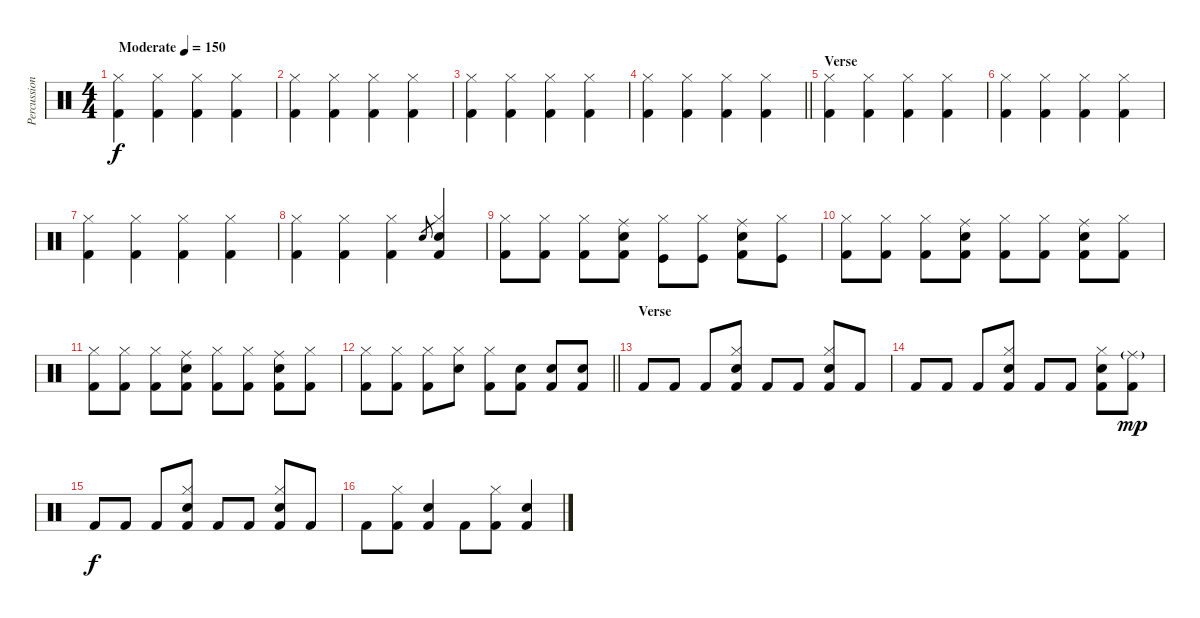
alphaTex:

\track ("Percussion" "Percussion") {instrument percussion}
\staff {score}
\articulation defaults
\ts (4 4)
\tempo (150 "Moderate")
\clef neutral
\ks c
("Kick (hit) 2" "Hi-Hat (closed)").4{dy f} ("Kick (hit) 2" "Hi-Hat (closed)").4 ("Kick (hit) 2" "Hi-Hat (closed)").4 ("Kick (hit) 2" "Hi-Hat (closed)").4 |
("Kick (hit) 2" "Hi-Hat (closed)").4 ("Kick (hit) 2" "Hi-Hat (closed)").4 ("Kick (hit) 2" "Hi-Hat (closed)").4 ("Kick (hit) 2" "Hi-Hat (closed)").4 |
("Kick (hit) 2" "Hi-Hat (closed)").4 ("Kick (hit) 2" "Hi-Hat (closed)").4 ("Kick (hit) 2" "Hi-Hat (closed)").4 ("Kick (hit) 2" "Hi-Hat (closed)").4 |
\barLineRight lightlight
("Kick (hit) 2" "Hi-Hat (closed)").4 ("Kick (hit) 2" "Hi-Hat (closed)").4 ("Kick (hit) 2" "Hi-Hat (closed)").4 ("Kick (hit) 2" "Hi-Hat (closed)").4 |
\section ("" "Verse")
("Kick (hit) 2" "Hi-Hat (closed)").4 ("Kick (hit) 2" "Hi-Hat (closed)").4 ("Kick (hit) 2" "Hi-Hat (closed)").4 ("Kick (hit) 2" "Hi-Hat (closed)").4 |
("Kick (hit) 2" "Hi-Hat (closed)").4 ("Kick (hit) 2" "Hi-Hat (closed)").4 ("Kick (hit) 2" "Hi-Hat (closed)").4 ("Kick (hit) 2" "Hi-Hat (closed)").4 |
("Kick (hit) 2" "Hi-Hat (closed)").4 ("Kick (hit) 2" "Hi-Hat (closed)").4 ("Kick (hit) 2" "Hi-Hat (closed)").4 ("Kick (hit) 2" "Hi-Hat (closed)").4 |
("Kick (hit) 2" "Hi-Hat (closed)").4 ("Kick (hit) 2" "Hi-Hat (closed)").4 ("Kick (hit) 2" "Hi-Hat (closed)").4 "Snare (hit) 2".8{gr} ("Kick (hit) 2" "Hi-Hat (closed)" "Snare (hit) 2").4 |
("Kick (hit) 2" "Hi-Hat (closed)").8 ("Kick (hit) 2" "Hi-Hat (closed)").8 ("Kick (hit) 2" "Hi-Hat (closed)").8 ("Kick (hit) 2" "Ride (middle)" "Snare (hit) 2").8 ("Hi-Hat (closed)" "Kick (hit)").8 ("Hi-Hat (closed)" "Kick (hit)").8 ("Kick (hit) 2" "Ride (middle)" "Snare (hit) 2").8 ("Hi-Hat (closed)" "Kick (hit)").8 |
("Kick (hit) 2" "Hi-Hat (closed)").8 ("Kick (hit) 2" "Hi-Hat (closed)").8 ("Kick (hit) 2" "Hi-Hat (closed)").8 ("Kick (hit) 2" "Snare (hit) 2" "Ride (middle)").8 ("Kick (hit) 2" "Hi-Hat (closed)").8 ("Kick (hit) 2" "Hi-Hat (closed)").8 ("Kick (hit) 2" "Snare (hit) 2" "Ride (middle)").8 ("Kick (hit) 2" "Hi-Hat (closed)").8 |
("Kick (hit) 2" "Hi-Hat (closed)").8 ("Kick (hit) 2" "Hi-Hat (closed)").8 ("Kick (hit) 2" "Hi-Hat (closed)").8 ("Kick (hit) 2" "Snare (hit) 2" "Ride (middle)").8 ("Kick (hit) 2" "Hi-Hat (closed)").8 ("Kick (hit) 2" "Hi-Hat (closed)").8 ("Kick (hit) 2" "Snare (hit) 2" "Ride (middle)").8 ("Kick (hit) 2" "Hi-Hat (closed)").8 |
\barLineRight lightlight
("Kick (hit) 2" "Hi-Hat (closed)").8 ("Kick (hit) 2" "Hi-Hat (closed)").8 ("Kick (hit) 2" "Hi-Hat (closed)").8 ("Hi-Hat (closed)" "Snare (hit) 2").8 ("Kick (hit) 2" "Hi-Hat (closed)").8 ("Kick (hit) 2" "Snare (hit) 2").8 ("Kick (hit) 2" "Snare (hit) 2").8 ("Kick (hit) 2" "Snare (hit) 2").8 |
\section ("" "Verse")
"Kick (hit) 2".8 "Kick (hit) 2".8 "Kick (hit) 2".8 ("Kick (hit) 2" "Snare (hit) 2" "Hi-Hat (closed)").8 "Kick (hit) 2".8 "Kick (hit) 2".8 ("Kick (hit) 2" "Snare (hit) 2" "Hi-Hat (closed)").8 "Kick (hit) 2".8 |
"Kick (hit) 2".8 "Kick (hit) 2".8 "Kick (hit) 2".8 ("Kick (hit) 2" "Snare (hit) 2" "Hi-Hat (closed)").8 "Kick (hit) 2".8 "Kick (hit) 2".8 ("Kick (hit) 2" "Snare (hit) 2" "Hi-Hat (closed)").8 ("Kick (hit) 2" "Ride (middle)"{g}).8{dy mp} |
"Kick (hit) 2".8{dy f} "Kick (hit) 2".8 "Kick (hit) 2".8 ("Kick (hit) 2" "Hi-Hat (closed)" "Snare (hit) 2").8 "Kick (hit) 2".8 "Kick (hit) 2".8 ("Kick (hit) 2" "Snare (hit) 2" "Hi-Hat (closed)").8 "Kick (hit) 2".8 |
"Kick (hit) 2".8 ("Kick (hit) 2" "Hi-Hat (closed)").8 ("Kick (hit) 2" "Snare (hit) 2").4 "Kick (hit) 2".8 ("Kick (hit) 2" "Hi-Hat (closed)").8 ("Kick (hit) 2" "Snare (hit) 2").4
